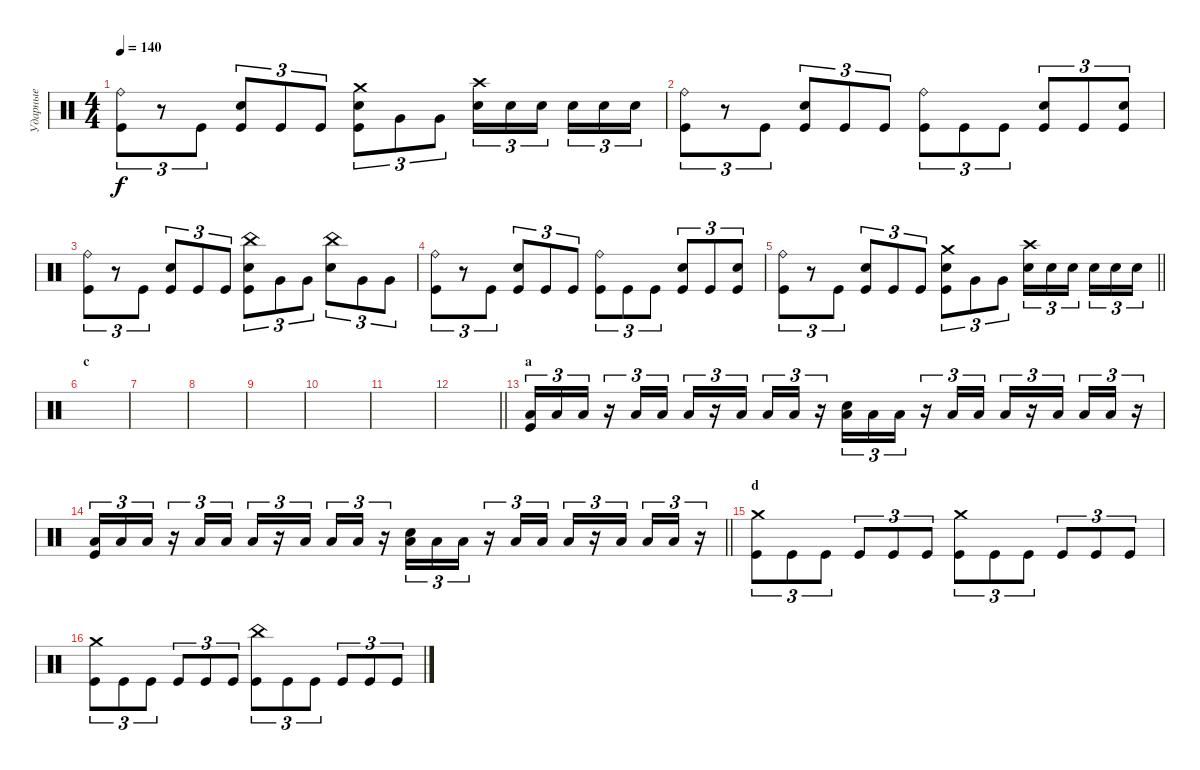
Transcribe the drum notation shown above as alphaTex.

\track ("Ударные" "Ударные") {instrument percussion}
\staff {score}
\articulation defaults
\ts (4 4)
\tempo 140
\clef neutral
\ks c
("Ride (bell)" "Kick (hit)").8{tu (3 2) dy f} r.8{tu (3 2)} "Kick (hit)".8{tu (3 2)} ("Electric Snare (hit)" "Kick (hit)").8{tu (3 2)} "Kick (hit)".8{tu (3 2)} "Kick (hit)".8{tu (3 2)} ("Electric Snare (hit)" "Kick (hit)" "Crash medium (hit)").8{tu (3 2)} "Very Low Tom (hit)".8{tu (3 2)} "Very Low Tom (hit)".8{tu (3 2)} ("Electric Snare (hit)" "Crash high (hit)").16{tu (3 2)} "Electric Snare (hit)".16{tu (3 2)} "Electric Snare (hit)".16{tu (3 2) beam splitsecondary} "Electric Snare (hit)".16{tu (3 2)} "Electric Snare (hit)".16{tu (3 2)} "Electric Snare (hit)".16{tu (3 2)} |
("Ride (bell)" "Kick (hit)").8{tu (3 2)} r.8{tu (3 2)} "Kick (hit)".8{tu (3 2)} ("Electric Snare (hit)" "Kick (hit)").8{tu (3 2)} "Kick (hit)".8{tu (3 2)} "Kick (hit)".8{tu (3 2)} ("Ride (bell)" "Kick (hit)").8{tu (3 2)} "Kick (hit)".8{tu (3 2)} "Kick (hit)".8{tu (3 2)} ("Electric Snare (hit)" "Kick (hit)").8{tu (3 2)} "Kick (hit)".8{tu (3 2)} ("Electric Snare (hit)" "Kick (hit)").8{tu (3 2)} |
("Ride (bell)" "Kick (hit)").8{tu (3 2)} r.8{tu (3 2)} "Kick (hit)".8{tu (3 2)} ("Electric Snare (hit)" "Kick (hit)").8{tu (3 2)} "Kick (hit)".8{tu (3 2)} "Kick (hit)".8{tu (3 2)} ("Electric Snare (hit)" "Kick (hit)" "China (hit)").8{tu (3 2)} "Very Low Tom (hit)".8{tu (3 2)} "Very Low Tom (hit)".8{tu (3 2)} ("Electric Snare (hit)" "China (hit)").8{tu (3 2)} "Very Low Tom (hit)".8{tu (3 2)} "Very Low Tom (hit)".8{tu (3 2)} |
("Ride (bell)" "Kick (hit)").8{tu (3 2)} r.8{tu (3 2)} "Kick (hit)".8{tu (3 2)} ("Electric Snare (hit)" "Kick (hit)").8{tu (3 2)} "Kick (hit)".8{tu (3 2)} "Kick (hit)".8{tu (3 2)} ("Ride (bell)" "Kick (hit)").8{tu (3 2)} "Kick (hit)".8{tu (3 2)} "Kick (hit)".8{tu (3 2)} ("Electric Snare (hit)" "Kick (hit)").8{tu (3 2)} "Kick (hit)".8{tu (3 2)} ("Electric Snare (hit)" "Kick (hit)").8{tu (3 2)} |
\barLineRight lightlight
("Ride (bell)" "Kick (hit)").8{tu (3 2)} r.8{tu (3 2)} "Kick (hit)".8{tu (3 2)} ("Electric Snare (hit)" "Kick (hit)").8{tu (3 2)} "Kick (hit)".8{tu (3 2)} "Kick (hit)".8{tu (3 2)} ("Electric Snare (hit)" "Kick (hit)" "Crash medium (hit)").8{tu (3 2)} "Very Low Tom (hit)".8{tu (3 2)} "Very Low Tom (hit)".8{tu (3 2)} ("Electric Snare (hit)" "Crash high (hit)").16{tu (3 2)} "Electric Snare (hit)".16{tu (3 2)} "Electric Snare (hit)".16{tu (3 2) beam splitsecondary} "Electric Snare (hit)".16{tu (3 2)} "Electric Snare (hit)".16{tu (3 2)} "Electric Snare (hit)".16{tu (3 2)} |
\section ("" "c")
|
|
|
|
|
|
\barLineRight lightlight
|
\section ("" "a")
("Low Floor Tom (hit)" "Kick (hit)").16{tu (3 2)} "Low Floor Tom (hit)".16{tu (3 2)} "Low Floor Tom (hit)".16{tu (3 2)} r.16{tu (3 2)} "Low Floor Tom (hit)".16{tu (3 2)} "Low Floor Tom (hit)".16{tu (3 2)} "Low Floor Tom (hit)".16{tu (3 2)} r.16{tu (3 2)} "Low Floor Tom (hit)".16{tu (3 2) beam splitsecondary} "Low Floor Tom (hit)".16{tu (3 2)} "Low Floor Tom (hit)".16{tu (3 2)} r.16{tu (3 2)} ("Low Floor Tom (hit)" "Electric Snare (hit)").16{tu (3 2)} "Low Floor Tom (hit)".16{tu (3 2)} "Low Floor Tom (hit)".16{tu (3 2)} r.16{tu (3 2)} "Low Floor Tom (hit)".16{tu (3 2)} "Low Floor Tom (hit)".16{tu (3 2)} "Low Floor Tom (hit)".16{tu (3 2)} r.16{tu (3 2)} "Low Floor Tom (hit)".16{tu (3 2) beam splitsecondary} "Low Floor Tom (hit)".16{tu (3 2)} "Low Floor Tom (hit)".16{tu (3 2)} r.16{tu (3 2)} |
\barLineRight lightlight
("Low Floor Tom (hit)" "Kick (hit)").16{tu (3 2)} "Low Floor Tom (hit)".16{tu (3 2)} "Low Floor Tom (hit)".16{tu (3 2)} r.16{tu (3 2)} "Low Floor Tom (hit)".16{tu (3 2)} "Low Floor Tom (hit)".16{tu (3 2)} "Low Floor Tom (hit)".16{tu (3 2)} r.16{tu (3 2)} "Low Floor Tom (hit)".16{tu (3 2) beam splitsecondary} "Low Floor Tom (hit)".16{tu (3 2)} "Low Floor Tom (hit)".16{tu (3 2)} r.16{tu (3 2)} ("Low Floor Tom (hit)" "Electric Snare (hit)").16{tu (3 2)} "Low Floor Tom (hit)".16{tu (3 2)} "Low Floor Tom (hit)".16{tu (3 2)} r.16{tu (3 2)} "Low Floor Tom (hit)".16{tu (3 2)} "Low Floor Tom (hit)".16{tu (3 2)} "Low Floor Tom (hit)".16{tu (3 2)} r.16{tu (3 2)} "Low Floor Tom (hit)".16{tu (3 2) beam splitsecondary} "Low Floor Tom (hit)".16{tu (3 2)} "Low Floor Tom (hit)".16{tu (3 2)} r.16{tu (3 2)} |
\section ("" "d")
("Crash medium (hit)" "Kick (hit)").8{tu (3 2)} "Kick (hit)".8{tu (3 2)} "Kick (hit)".8{tu (3 2)} "Kick (hit)".8{tu (3 2)} "Kick (hit)".8{tu (3 2)} "Kick (hit)".8{tu (3 2)} ("Crash medium (hit)" "Kick (hit)").8{tu (3 2)} "Kick (hit)".8{tu (3 2)} "Kick (hit)".8{tu (3 2)} "Kick (hit)".8{tu (3 2)} "Kick (hit)".8{tu (3 2)} "Kick (hit)".8{tu (3 2)} |
("Crash medium (hit)" "Kick (hit)").8{tu (3 2)} "Kick (hit)".8{tu (3 2)} "Kick (hit)".8{tu (3 2)} "Kick (hit)".8{tu (3 2)} "Kick (hit)".8{tu (3 2)} "Kick (hit)".8{tu (3 2)} ("China (hit)" "Kick (hit)").8{tu (3 2)} "Kick (hit)".8{tu (3 2)} "Kick (hit)".8{tu (3 2)} "Kick (hit)".8{tu (3 2)} "Kick (hit)".8{tu (3 2)} "Kick (hit)".8{tu (3 2)}
